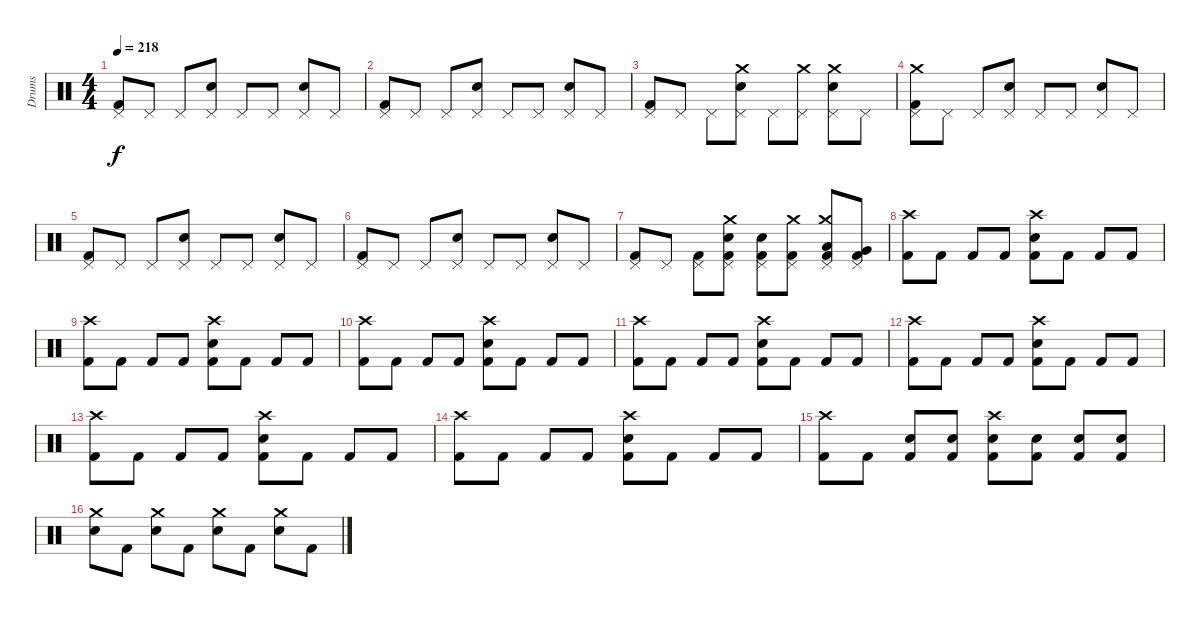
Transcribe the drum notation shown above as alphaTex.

\track ("Drums" "Drums") {instrument percussion}
\staff {score}
\articulation defaults
\ts (4 4)
\tempo 218
\clef neutral
\ks c
("Pedal Hi-Hat (hit)" "Kick (hit) 2").8{dy f} "Pedal Hi-Hat (hit)".8 "Pedal Hi-Hat (hit)".8 ("Pedal Hi-Hat (hit)" "Electric Snare (hit)").8 "Pedal Hi-Hat (hit)".8 "Pedal Hi-Hat (hit)".8 ("Pedal Hi-Hat (hit)" "Electric Snare (hit)").8 "Pedal Hi-Hat (hit)".8 |
("Pedal Hi-Hat (hit)" "Kick (hit) 2").8 "Pedal Hi-Hat (hit)".8 "Pedal Hi-Hat (hit)".8 ("Pedal Hi-Hat (hit)" "Electric Snare (hit)").8 "Pedal Hi-Hat (hit)".8 "Pedal Hi-Hat (hit)".8 ("Pedal Hi-Hat (hit)" "Electric Snare (hit)").8 "Pedal Hi-Hat (hit)".8 |
("Pedal Hi-Hat (hit)" "Kick (hit) 2").8 "Pedal Hi-Hat (hit)".8 "Pedal Hi-Hat (hit)".8 ("Crash medium (hit)" "Pedal Hi-Hat (hit)" "Electric Snare (hit)").8 "Pedal Hi-Hat (hit)".8 ("Crash medium (hit)" "Pedal Hi-Hat (hit)").8 ("Crash medium (hit)" "Pedal Hi-Hat (hit)" "Electric Snare (hit)").8 "Pedal Hi-Hat (hit)".8 |
("Crash medium (hit)" "Pedal Hi-Hat (hit)" "Kick (hit) 2").8 "Pedal Hi-Hat (hit)".8 "Pedal Hi-Hat (hit)".8 ("Pedal Hi-Hat (hit)" "Electric Snare (hit)").8 "Pedal Hi-Hat (hit)".8 "Pedal Hi-Hat (hit)".8 ("Pedal Hi-Hat (hit)" "Electric Snare (hit)").8 "Pedal Hi-Hat (hit)".8 |
("Pedal Hi-Hat (hit)" "Kick (hit) 2").8 "Pedal Hi-Hat (hit)".8 "Pedal Hi-Hat (hit)".8 ("Pedal Hi-Hat (hit)" "Electric Snare (hit)").8 "Pedal Hi-Hat (hit)".8 "Pedal Hi-Hat (hit)".8 ("Pedal Hi-Hat (hit)" "Electric Snare (hit)").8 "Pedal Hi-Hat (hit)".8 |
("Pedal Hi-Hat (hit)" "Kick (hit) 2").8 "Pedal Hi-Hat (hit)".8 "Pedal Hi-Hat (hit)".8 ("Pedal Hi-Hat (hit)" "Electric Snare (hit)").8 "Pedal Hi-Hat (hit)".8 "Pedal Hi-Hat (hit)".8 ("Pedal Hi-Hat (hit)" "Electric Snare (hit)").8 "Pedal Hi-Hat (hit)".8 |
("Pedal Hi-Hat (hit)" "Kick (hit) 2").8 "Pedal Hi-Hat (hit)".8 ("Pedal Hi-Hat (hit)" "Kick (hit) 2").8 ("Crash medium (hit)" "Pedal Hi-Hat (hit)" "Electric Snare (hit)" "Kick (hit) 2").8 ("Pedal Hi-Hat (hit)" "Electric Snare (hit)" "Kick (hit) 2").8 ("Crash medium (hit)" "Pedal Hi-Hat (hit)" "Kick (hit) 2").8 ("Crash medium (hit)" "Pedal Hi-Hat (hit)" "Low Tom (hit)" "Kick (hit) 2").8 ("Pedal Hi-Hat (hit)" "Very Low Tom (hit)" "Kick (hit) 2").8 |
("Crash high (hit)" "Kick (hit) 2").8 "Kick (hit) 2".8 "Kick (hit) 2".8 "Kick (hit) 2".8 ("Crash high (hit)" "Electric Snare (hit)" "Kick (hit) 2").8 "Kick (hit) 2".8 "Kick (hit) 2".8 "Kick (hit) 2".8 |
("Crash high (hit)" "Kick (hit) 2").8 "Kick (hit) 2".8 "Kick (hit) 2".8 "Kick (hit) 2".8 ("Crash high (hit)" "Electric Snare (hit)" "Kick (hit) 2").8 "Kick (hit) 2".8 "Kick (hit) 2".8 "Kick (hit) 2".8 |
("Crash high (hit)" "Kick (hit) 2").8 "Kick (hit) 2".8 "Kick (hit) 2".8 "Kick (hit) 2".8 ("Crash high (hit)" "Electric Snare (hit)" "Kick (hit) 2").8 "Kick (hit) 2".8 "Kick (hit) 2".8 "Kick (hit) 2".8 |
("Crash high (hit)" "Kick (hit) 2").8 "Kick (hit) 2".8 "Kick (hit) 2".8 "Kick (hit) 2".8 ("Crash high (hit)" "Electric Snare (hit)" "Kick (hit) 2").8 "Kick (hit) 2".8 "Kick (hit) 2".8 "Kick (hit) 2".8 |
("Crash high (hit)" "Kick (hit) 2").8 "Kick (hit) 2".8 "Kick (hit) 2".8 "Kick (hit) 2".8 ("Crash high (hit)" "Electric Snare (hit)" "Kick (hit) 2").8 "Kick (hit) 2".8 "Kick (hit) 2".8 "Kick (hit) 2".8 |
("Crash high (hit)" "Kick (hit) 2").8 "Kick (hit) 2".8 "Kick (hit) 2".8 "Kick (hit) 2".8 ("Crash high (hit)" "Electric Snare (hit)" "Kick (hit) 2").8 "Kick (hit) 2".8 "Kick (hit) 2".8 "Kick (hit) 2".8 |
("Crash high (hit)" "Kick (hit) 2").8 "Kick (hit) 2".8 "Kick (hit) 2".8 "Kick (hit) 2".8 ("Crash high (hit)" "Electric Snare (hit)" "Kick (hit) 2").8 "Kick (hit) 2".8 "Kick (hit) 2".8 "Kick (hit) 2".8 |
("Crash high (hit)" "Kick (hit) 2").8 "Kick (hit) 2".8 ("Electric Snare (hit)" "Kick (hit) 2").8 ("Electric Snare (hit)" "Kick (hit) 2").8 ("Crash high (hit)" "Electric Snare (hit)" "Kick (hit) 2").8 ("Electric Snare (hit)" "Kick (hit) 2").8 ("Electric Snare (hit)" "Kick (hit) 2").8 ("Electric Snare (hit)" "Kick (hit) 2").8 |
("Crash medium (hit)" "Electric Snare (hit)").8 "Kick (hit) 2".8 ("Crash medium (hit)" "Electric Snare (hit)").8 "Kick (hit) 2".8 ("Crash medium (hit)" "Electric Snare (hit)").8 "Kick (hit) 2".8 ("Crash medium (hit)" "Electric Snare (hit)").8 "Kick (hit) 2".8
